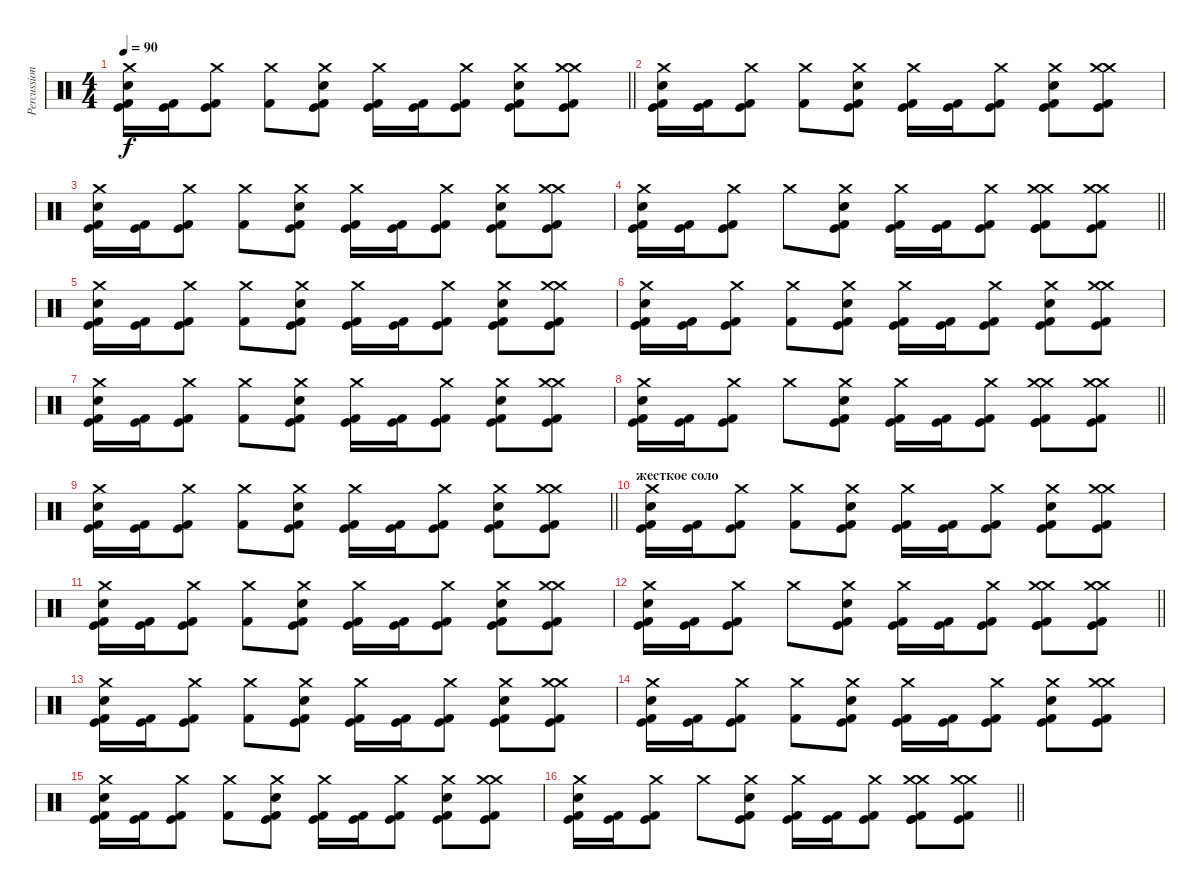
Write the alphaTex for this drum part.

\track ("Percussion" "Percussion") {instrument percussion}
\staff {score}
\articulation defaults
\ts (4 4)
\tempo 90
\clef neutral
\barLineRight lightlight
\ks c
("Crash medium (hit)" "Snare (hit) 2" "Kick (hit)" "Kick (hit) 2").16{dy f} ("Kick (hit)" "Kick (hit) 2").16 ("Crash medium (hit)" "Kick (hit)" "Kick (hit) 2").8 ("Crash medium (hit)" "Kick (hit) 2").8 ("Crash medium (hit)" "Snare (hit) 2" "Kick (hit)" "Kick (hit) 2").8 ("Crash medium (hit)" "Kick (hit)" "Kick (hit) 2").16 ("Kick (hit)" "Kick (hit) 2").16 ("Crash medium (hit)" "Kick (hit)" "Kick (hit) 2").8 ("Crash medium (hit)" "Snare (hit) 2" "Kick (hit)" "Kick (hit) 2").8 ("Crash medium (hit)" "Crash medium (hit)" "Kick (hit)" "Kick (hit) 2").8 |
\section ("" "")
("Crash medium (hit)" "Snare (hit) 2" "Kick (hit)" "Kick (hit) 2").16 ("Kick (hit)" "Kick (hit) 2").16 ("Crash medium (hit)" "Kick (hit)" "Kick (hit) 2").8 ("Crash medium (hit)" "Kick (hit) 2").8 ("Crash medium (hit)" "Snare (hit) 2" "Kick (hit)" "Kick (hit) 2").8 ("Crash medium (hit)" "Kick (hit)" "Kick (hit) 2").16 ("Kick (hit)" "Kick (hit) 2").16 ("Crash medium (hit)" "Kick (hit)" "Kick (hit) 2").8 ("Crash medium (hit)" "Snare (hit) 2" "Kick (hit)" "Kick (hit) 2").8 ("Crash medium (hit)" "Crash medium (hit)" "Kick (hit)" "Kick (hit) 2").8 |
("Crash medium (hit)" "Snare (hit) 2" "Kick (hit)" "Kick (hit) 2").16 ("Kick (hit)" "Kick (hit) 2").16 ("Crash medium (hit)" "Kick (hit)" "Kick (hit) 2").8 ("Crash medium (hit)" "Kick (hit) 2").8 ("Crash medium (hit)" "Snare (hit) 2" "Kick (hit)" "Kick (hit) 2").8 ("Crash medium (hit)" "Kick (hit)" "Kick (hit) 2").16 ("Kick (hit)" "Kick (hit) 2").16 ("Crash medium (hit)" "Kick (hit)" "Kick (hit) 2").8 ("Crash medium (hit)" "Snare (hit) 2" "Kick (hit)" "Kick (hit) 2").8 ("Crash medium (hit)" "Crash medium (hit)" "Kick (hit)" "Kick (hit) 2").8 |
\barLineRight lightlight
("Crash medium (hit)" "Snare (hit) 2" "Kick (hit)" "Kick (hit) 2").16 ("Kick (hit)" "Kick (hit) 2").16 ("Crash medium (hit)" "Kick (hit)" "Kick (hit) 2").8 "Crash medium (hit)".8 ("Crash medium (hit)" "Snare (hit) 2" "Kick (hit)" "Kick (hit) 2").8 ("Crash medium (hit)" "Kick (hit)" "Kick (hit) 2").16 ("Kick (hit)" "Kick (hit) 2").16 ("Crash medium (hit)" "Kick (hit)" "Kick (hit) 2").8 ("Crash medium (hit)" "Crash medium (hit)" "Kick (hit)" "Kick (hit)" "Kick (hit) 2").8 ("Crash medium (hit)" "Crash medium (hit)" "Kick (hit)" "Kick (hit) 2").8 |
("Crash medium (hit)" "Snare (hit) 2" "Kick (hit)" "Kick (hit) 2").16 ("Kick (hit)" "Kick (hit) 2").16 ("Crash medium (hit)" "Kick (hit)" "Kick (hit) 2").8 ("Crash medium (hit)" "Kick (hit) 2").8 ("Crash medium (hit)" "Snare (hit) 2" "Kick (hit)" "Kick (hit) 2").8 ("Crash medium (hit)" "Kick (hit)" "Kick (hit) 2").16 ("Kick (hit)" "Kick (hit) 2").16 ("Crash medium (hit)" "Kick (hit)" "Kick (hit) 2").8 ("Crash medium (hit)" "Snare (hit) 2" "Kick (hit)" "Kick (hit) 2").8 ("Crash medium (hit)" "Crash medium (hit)" "Kick (hit)" "Kick (hit) 2").8 |
("Crash medium (hit)" "Snare (hit) 2" "Kick (hit)" "Kick (hit) 2").16 ("Kick (hit)" "Kick (hit) 2").16 ("Crash medium (hit)" "Kick (hit)" "Kick (hit) 2").8 ("Crash medium (hit)" "Kick (hit) 2").8 ("Crash medium (hit)" "Snare (hit) 2" "Kick (hit)" "Kick (hit) 2").8 ("Crash medium (hit)" "Kick (hit)" "Kick (hit) 2").16 ("Kick (hit)" "Kick (hit) 2").16 ("Crash medium (hit)" "Kick (hit)" "Kick (hit) 2").8 ("Crash medium (hit)" "Snare (hit) 2" "Kick (hit)" "Kick (hit) 2").8 ("Crash medium (hit)" "Crash medium (hit)" "Kick (hit)" "Kick (hit) 2").8 |
("Crash medium (hit)" "Snare (hit) 2" "Kick (hit)" "Kick (hit) 2").16 ("Kick (hit)" "Kick (hit) 2").16 ("Crash medium (hit)" "Kick (hit)" "Kick (hit) 2").8 ("Crash medium (hit)" "Kick (hit) 2").8 ("Crash medium (hit)" "Snare (hit) 2" "Kick (hit)" "Kick (hit) 2").8 ("Crash medium (hit)" "Kick (hit)" "Kick (hit) 2").16 ("Kick (hit)" "Kick (hit) 2").16 ("Crash medium (hit)" "Kick (hit)" "Kick (hit) 2").8 ("Crash medium (hit)" "Snare (hit) 2" "Kick (hit)" "Kick (hit) 2").8 ("Crash medium (hit)" "Crash medium (hit)" "Kick (hit)" "Kick (hit) 2").8 |
\barLineRight lightlight
("Crash medium (hit)" "Snare (hit) 2" "Kick (hit)" "Kick (hit) 2").16 ("Kick (hit)" "Kick (hit) 2").16 ("Crash medium (hit)" "Kick (hit)" "Kick (hit) 2").8 "Crash medium (hit)".8 ("Crash medium (hit)" "Snare (hit) 2" "Kick (hit)" "Kick (hit) 2").8 ("Crash medium (hit)" "Kick (hit)" "Kick (hit) 2").16 ("Kick (hit)" "Kick (hit) 2").16 ("Crash medium (hit)" "Kick (hit)" "Kick (hit) 2").8 ("Crash medium (hit)" "Crash medium (hit)" "Kick (hit)" "Kick (hit)" "Kick (hit) 2").8 ("Crash medium (hit)" "Crash medium (hit)" "Kick (hit)" "Kick (hit) 2").8 |
\barLineRight lightlight
("Crash medium (hit)" "Snare (hit) 2" "Kick (hit)" "Kick (hit) 2").16 ("Kick (hit)" "Kick (hit) 2").16 ("Crash medium (hit)" "Kick (hit)" "Kick (hit) 2").8 ("Crash medium (hit)" "Kick (hit) 2").8 ("Crash medium (hit)" "Snare (hit) 2" "Kick (hit)" "Kick (hit) 2").8 ("Crash medium (hit)" "Kick (hit)" "Kick (hit) 2").16 ("Kick (hit)" "Kick (hit) 2").16 ("Crash medium (hit)" "Kick (hit)" "Kick (hit) 2").8 ("Crash medium (hit)" "Snare (hit) 2" "Kick (hit)" "Kick (hit) 2").8 ("Crash medium (hit)" "Crash medium (hit)" "Kick (hit)" "Kick (hit) 2").8 |
\section ("" "жесткое соло")
("Crash medium (hit)" "Snare (hit) 2" "Kick (hit)" "Kick (hit) 2").16 ("Kick (hit)" "Kick (hit) 2").16 ("Crash medium (hit)" "Kick (hit)" "Kick (hit) 2").8 ("Crash medium (hit)" "Kick (hit) 2").8 ("Crash medium (hit)" "Snare (hit) 2" "Kick (hit)" "Kick (hit) 2").8 ("Crash medium (hit)" "Kick (hit)" "Kick (hit) 2").16 ("Kick (hit)" "Kick (hit) 2").16 ("Crash medium (hit)" "Kick (hit)" "Kick (hit) 2").8 ("Crash medium (hit)" "Snare (hit) 2" "Kick (hit)" "Kick (hit) 2").8 ("Crash medium (hit)" "Crash medium (hit)" "Kick (hit)" "Kick (hit) 2").8 |
("Crash medium (hit)" "Snare (hit) 2" "Kick (hit)" "Kick (hit) 2").16 ("Kick (hit)" "Kick (hit) 2").16 ("Crash medium (hit)" "Kick (hit)" "Kick (hit) 2").8 ("Crash medium (hit)" "Kick (hit) 2").8 ("Crash medium (hit)" "Snare (hit) 2" "Kick (hit)" "Kick (hit) 2").8 ("Crash medium (hit)" "Kick (hit)" "Kick (hit) 2").16 ("Kick (hit)" "Kick (hit) 2").16 ("Crash medium (hit)" "Kick (hit)" "Kick (hit) 2").8 ("Crash medium (hit)" "Snare (hit) 2" "Kick (hit)" "Kick (hit) 2").8 ("Crash medium (hit)" "Crash medium (hit)" "Kick (hit)" "Kick (hit) 2").8 |
\barLineRight lightlight
("Crash medium (hit)" "Snare (hit) 2" "Kick (hit)" "Kick (hit) 2").16 ("Kick (hit)" "Kick (hit) 2").16 ("Crash medium (hit)" "Kick (hit)" "Kick (hit) 2").8 "Crash medium (hit)".8 ("Crash medium (hit)" "Snare (hit) 2" "Kick (hit)" "Kick (hit) 2").8 ("Crash medium (hit)" "Kick (hit)" "Kick (hit) 2").16 ("Kick (hit)" "Kick (hit) 2").16 ("Crash medium (hit)" "Kick (hit)" "Kick (hit) 2").8 ("Crash medium (hit)" "Crash medium (hit)" "Kick (hit)" "Kick (hit)" "Kick (hit) 2").8 ("Crash medium (hit)" "Crash medium (hit)" "Kick (hit)" "Kick (hit) 2").8 |
("Crash medium (hit)" "Snare (hit) 2" "Kick (hit)" "Kick (hit) 2").16 ("Kick (hit)" "Kick (hit) 2").16 ("Crash medium (hit)" "Kick (hit)" "Kick (hit) 2").8 ("Crash medium (hit)" "Kick (hit) 2").8 ("Crash medium (hit)" "Snare (hit) 2" "Kick (hit)" "Kick (hit) 2").8 ("Crash medium (hit)" "Kick (hit)" "Kick (hit) 2").16 ("Kick (hit)" "Kick (hit) 2").16 ("Crash medium (hit)" "Kick (hit)" "Kick (hit) 2").8 ("Crash medium (hit)" "Snare (hit) 2" "Kick (hit)" "Kick (hit) 2").8 ("Crash medium (hit)" "Crash medium (hit)" "Kick (hit)" "Kick (hit) 2").8 |
("Crash medium (hit)" "Snare (hit) 2" "Kick (hit)" "Kick (hit) 2").16 ("Kick (hit)" "Kick (hit) 2").16 ("Crash medium (hit)" "Kick (hit)" "Kick (hit) 2").8 ("Crash medium (hit)" "Kick (hit) 2").8 ("Crash medium (hit)" "Snare (hit) 2" "Kick (hit)" "Kick (hit) 2").8 ("Crash medium (hit)" "Kick (hit)" "Kick (hit) 2").16 ("Kick (hit)" "Kick (hit) 2").16 ("Crash medium (hit)" "Kick (hit)" "Kick (hit) 2").8 ("Crash medium (hit)" "Snare (hit) 2" "Kick (hit)" "Kick (hit) 2").8 ("Crash medium (hit)" "Crash medium (hit)" "Kick (hit)" "Kick (hit) 2").8 |
("Crash medium (hit)" "Snare (hit) 2" "Kick (hit)" "Kick (hit) 2").16 ("Kick (hit)" "Kick (hit) 2").16 ("Crash medium (hit)" "Kick (hit)" "Kick (hit) 2").8 ("Crash medium (hit)" "Kick (hit) 2").8 ("Crash medium (hit)" "Snare (hit) 2" "Kick (hit)" "Kick (hit) 2").8 ("Crash medium (hit)" "Kick (hit)" "Kick (hit) 2").16 ("Kick (hit)" "Kick (hit) 2").16 ("Crash medium (hit)" "Kick (hit)" "Kick (hit) 2").8 ("Crash medium (hit)" "Snare (hit) 2" "Kick (hit)" "Kick (hit) 2").8 ("Crash medium (hit)" "Crash medium (hit)" "Kick (hit)" "Kick (hit) 2").8 |
\barLineRight lightlight
("Crash medium (hit)" "Snare (hit) 2" "Kick (hit)" "Kick (hit) 2").16 ("Kick (hit)" "Kick (hit) 2").16 ("Crash medium (hit)" "Kick (hit)" "Kick (hit) 2").8 "Crash medium (hit)".8 ("Crash medium (hit)" "Snare (hit) 2" "Kick (hit)" "Kick (hit) 2").8 ("Crash medium (hit)" "Kick (hit)" "Kick (hit) 2").16 ("Kick (hit)" "Kick (hit) 2").16 ("Crash medium (hit)" "Kick (hit)" "Kick (hit) 2").8 ("Crash medium (hit)" "Crash medium (hit)" "Kick (hit)" "Kick (hit)" "Kick (hit) 2").8 ("Crash medium (hit)" "Crash medium (hit)" "Kick (hit)" "Kick (hit) 2").8
